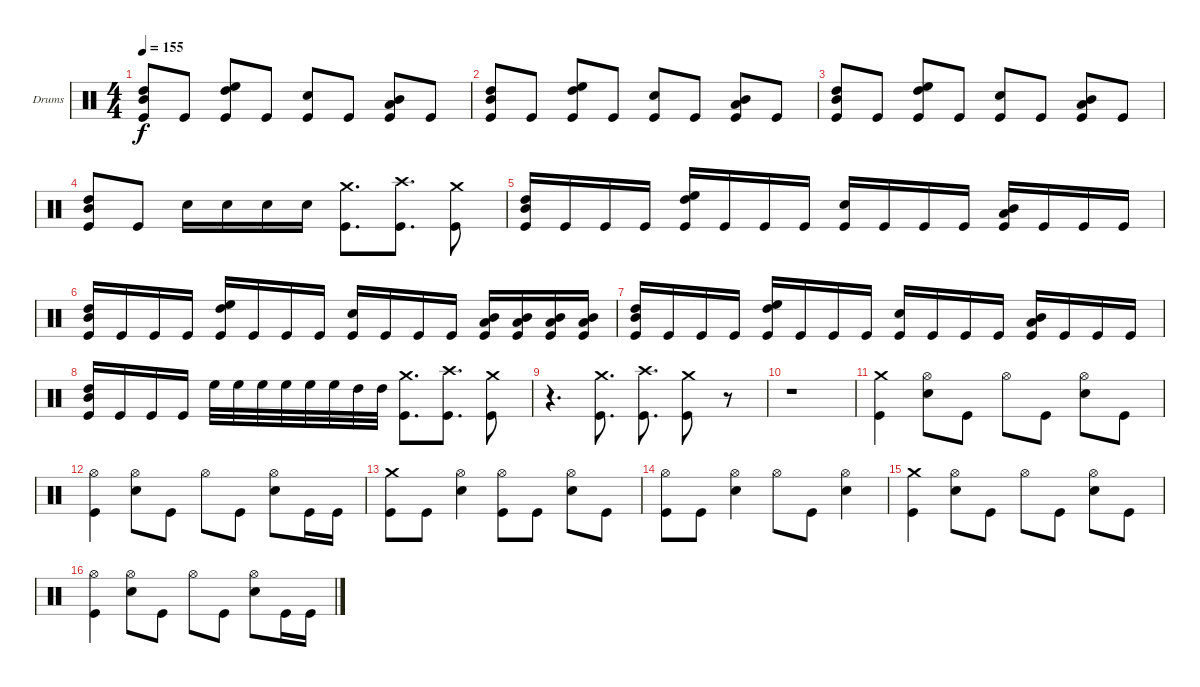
\defaultSystemsLayout 4
\bracketExtendMode groupsimilarinstruments
\firstSystemTrackNameOrientation horizontal
\otherSystemsTrackNameOrientation horizontal
\track ("Drumkit" "Drums") {instrument percussion}
\staff {score}
\articulation defaults
\ts (4 4)
\tempo 155
\clef neutral
\scale
0.333333
\ks c
("High Tom (hit)" "Mid Tom (hit)" "Kick (hit)").8{dy f} "Kick (hit)".8 ("High Floor Tom (hit)" "High Tom (hit)" "Kick (hit)").8 "Kick (hit)".8 ("Snare (hit) 2" "Kick (hit)").8 "Kick (hit)".8 ("Mid Tom (hit)" "Low Tom (hit)" "Kick (hit)").8 "Kick (hit)".8 |
\scale
0.333333 ("High Tom (hit)" "Mid Tom (hit)" "Kick (hit)").8 "Kick (hit)".8 ("High Floor Tom (hit)" "High Tom (hit)" "Kick (hit)").8 "Kick (hit)".8 ("Snare (hit) 2" "Kick (hit)").8 "Kick (hit)".8 ("Mid Tom (hit)" "Low Tom (hit)" "Kick (hit)").8 "Kick (hit)".8 |
\scale
0.333333 ("High Tom (hit)" "Mid Tom (hit)" "Kick (hit)").8 "Kick (hit)".8 ("High Floor Tom (hit)" "High Tom (hit)" "Kick (hit)").8 "Kick (hit)".8 ("Snare (hit) 2" "Kick (hit)").8 "Kick (hit)".8 ("Mid Tom (hit)" "Low Tom (hit)" "Kick (hit)").8 "Kick (hit)".8 |
\scale
0.333333 ("High Tom (hit)" "Mid Tom (hit)" "Kick (hit)").8 "Kick (hit)".8 "Snare (hit) 2".16 "Snare (hit) 2".16 "Snare (hit) 2".16 "Snare (hit) 2".16 ("Crash medium (hit)" "Kick (hit)").8{d} ("Crash high (hit)" "Kick (hit)").8{d} ("Crash medium (hit)" "Kick (hit)").8 |
\scale
0.333333 ("High Tom (hit)" "Mid Tom (hit)" "Kick (hit)").16 "Kick (hit)".16 "Kick (hit)".16 "Kick (hit)".16 ("High Floor Tom (hit)" "High Tom (hit)" "Kick (hit)").16 "Kick (hit)".16 "Kick (hit)".16 "Kick (hit)".16 ("Snare (hit) 2" "Kick (hit)").16 "Kick (hit)".16 "Kick (hit)".16 "Kick (hit)".16 ("Mid Tom (hit)" "Low Tom (hit)" "Kick (hit)").16 "Kick (hit)".16 "Kick (hit)".16 "Kick (hit)".16 |
\scale
0.333333 ("High Tom (hit)" "Mid Tom (hit)" "Kick (hit)").16 "Kick (hit)".16 "Kick (hit)".16 "Kick (hit)".16 ("High Floor Tom (hit)" "High Tom (hit)" "Kick (hit)").16 "Kick (hit)".16 "Kick (hit)".16 "Kick (hit)".16 ("Snare (hit) 2" "Kick (hit)").16 "Kick (hit)".16 "Kick (hit)".16 "Kick (hit)".16 ("Mid Tom (hit)" "Low Tom (hit)" "Kick (hit)").16 ("Mid Tom (hit)" "Low Tom (hit)" "Kick (hit)").16 ("Mid Tom (hit)" "Low Tom (hit)" "Kick (hit)").16 ("Mid Tom (hit)" "Low Tom (hit)" "Kick (hit)").16 |
\scale
0.333333 ("High Tom (hit)" "Mid Tom (hit)" "Kick (hit)").16 "Kick (hit)".16 "Kick (hit)".16 "Kick (hit)".16 ("High Floor Tom (hit)" "High Tom (hit)" "Kick (hit)").16 "Kick (hit)".16 "Kick (hit)".16 "Kick (hit)".16 ("Snare (hit) 2" "Kick (hit)").16 "Kick (hit)".16 "Kick (hit)".16 "Kick (hit)".16 ("Mid Tom (hit)" "Low Tom (hit)" "Kick (hit)").16 "Kick (hit)".16 "Kick (hit)".16 "Kick (hit)".16 |
\scale
0.333333 ("High Tom (hit)" "Mid Tom (hit)" "Kick (hit)").16 "Kick (hit)".16 "Kick (hit)".16 "Kick (hit)".16 "High Floor Tom (hit)".32 "High Floor Tom (hit)".32 "High Floor Tom (hit)".32 "High Floor Tom (hit)".32 "High Floor Tom (hit)".32 "High Floor Tom (hit)".32 "High Tom (hit)".32 "High Tom (hit)".32 ("Crash medium (hit)" "Kick (hit)").8{d} ("Crash high (hit)" "Kick (hit)").8{d} ("Crash medium (hit)" "Kick (hit)").8 |
\scale
0.333333 r.4{d} ("Crash medium (hit)" "Kick (hit)").8{d} ("Crash high (hit)" "Kick (hit)").8{d} ("Crash medium (hit)" "Kick (hit)").8 r.8 |
\scale
0.333333 r.1 |
\scale
0.333333 ("Crash medium (hit)" "Kick (hit)").4 ("Hi-Hat (open)" "Snare (hit) 2").8 "Kick (hit)".8 "Hi-Hat (open)".8 "Kick (hit)".8 ("Hi-Hat (open)" "Snare (hit) 2").8 "Kick (hit)".8 |
\scale
0.333333 ("Hi-Hat (open)" "Kick (hit)").4 ("Hi-Hat (open)" "Snare (hit) 2").8 "Kick (hit)".8 "Hi-Hat (open)".8 "Kick (hit)".8 ("Hi-Hat (open)" "Snare (hit) 2").8 "Kick (hit)".16 "Kick (hit)".16 |
\scale
0.333333 ("Crash medium (hit)" "Kick (hit)").8 "Kick (hit)".8 ("Hi-Hat (open)" "Snare (hit) 2").4 ("Hi-Hat (open)" "Kick (hit)").8 "Kick (hit)".8 ("Hi-Hat (open)" "Snare (hit) 2").8 "Kick (hit)".8 |
\scale
0.333333 ("Hi-Hat (open)" "Kick (hit)").8 "Kick (hit)".8 ("Hi-Hat (open)" "Snare (hit) 2").4 "Hi-Hat (open)".8 "Kick (hit)".8 ("Hi-Hat (open)" "Snare (hit) 2").4 |
\scale
0.333333 ("Crash medium (hit)" "Kick (hit)").4 ("Hi-Hat (open)" "Snare (hit) 2").8 "Kick (hit)".8 "Hi-Hat (open)".8 "Kick (hit)".8 ("Hi-Hat (open)" "Snare (hit) 2").8 "Kick (hit)".8 |
\scale
0.333333 ("Hi-Hat (open)" "Kick (hit)").4 ("Hi-Hat (open)" "Snare (hit) 2").8 "Kick (hit)".8 "Hi-Hat (open)".8 "Kick (hit)".8 ("Hi-Hat (open)" "Snare (hit) 2").8 "Kick (hit)".16 "Kick (hit)".16
